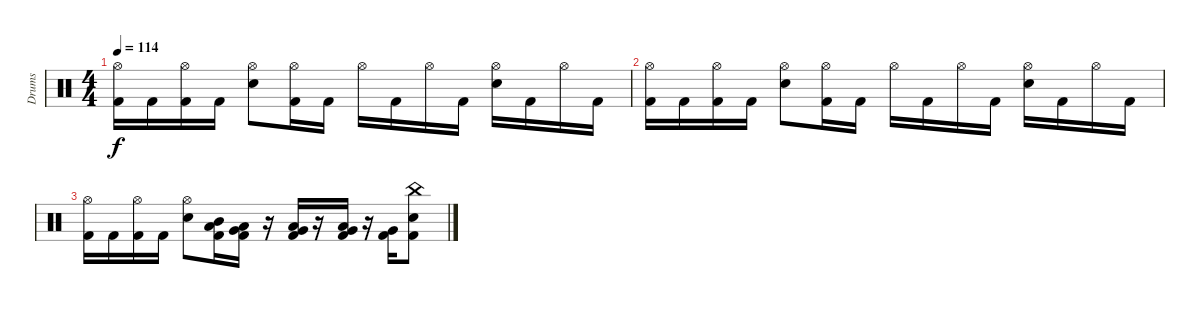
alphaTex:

\track ("Drums" "Drums") {instrument percussion}
\staff {score}
\articulation defaults
\ts (4 4)
\tempo 114
\clef neutral
\ks c
("Hi-Hat (open)" "Kick (hit) 2").16{dy f} "Kick (hit) 2".16 ("Hi-Hat (open)" "Kick (hit) 2").16 "Kick (hit) 2".16 ("Hi-Hat (open)" "Electric Snare (hit)").8 ("Hi-Hat (open)" "Kick (hit) 2").16 "Kick (hit) 2".16 "Hi-Hat (open)".16 "Kick (hit) 2".16 "Hi-Hat (open)".16 "Kick (hit) 2".16 ("Hi-Hat (open)" "Electric Snare (hit)").16 "Kick (hit) 2".16 "Hi-Hat (open)".16 "Kick (hit) 2".16 |
("Hi-Hat (open)" "Kick (hit) 2").16 "Kick (hit) 2".16 ("Hi-Hat (open)" "Kick (hit) 2").16 "Kick (hit) 2".16 ("Hi-Hat (open)" "Electric Snare (hit)").8 ("Hi-Hat (open)" "Kick (hit) 2").16 "Kick (hit) 2".16 "Hi-Hat (open)".16 "Kick (hit) 2".16 "Hi-Hat (open)".16 "Kick (hit) 2".16 ("Hi-Hat (open)" "Electric Snare (hit)").16 "Kick (hit) 2".16 "Hi-Hat (open)".16 "Kick (hit) 2".16 |
("Hi-Hat (open)" "Kick (hit) 2").16 "Kick (hit) 2".16 ("Hi-Hat (open)" "Kick (hit) 2").16 "Kick (hit) 2".16 ("Hi-Hat (open)" "Electric Snare (hit)").8 ("Mid Tom (hit)" "Low Tom (hit)" "Kick (hit) 2").16 ("Low Tom (hit)" "Very Low Tom (hit)" "Kick (hit) 2").16 r.16 ("Very Low Tom (hit)" "Low Floor Tom (hit)" "Kick (hit) 2").16 r.16 ("Low Tom (hit)" "Very Low Tom (hit)" "Kick (hit) 2").16 r.16 ("Very Low Tom (hit)" "Kick (hit) 2").16 ("China (hit)" "Electric Snare (hit)" "Kick (hit) 2").8
